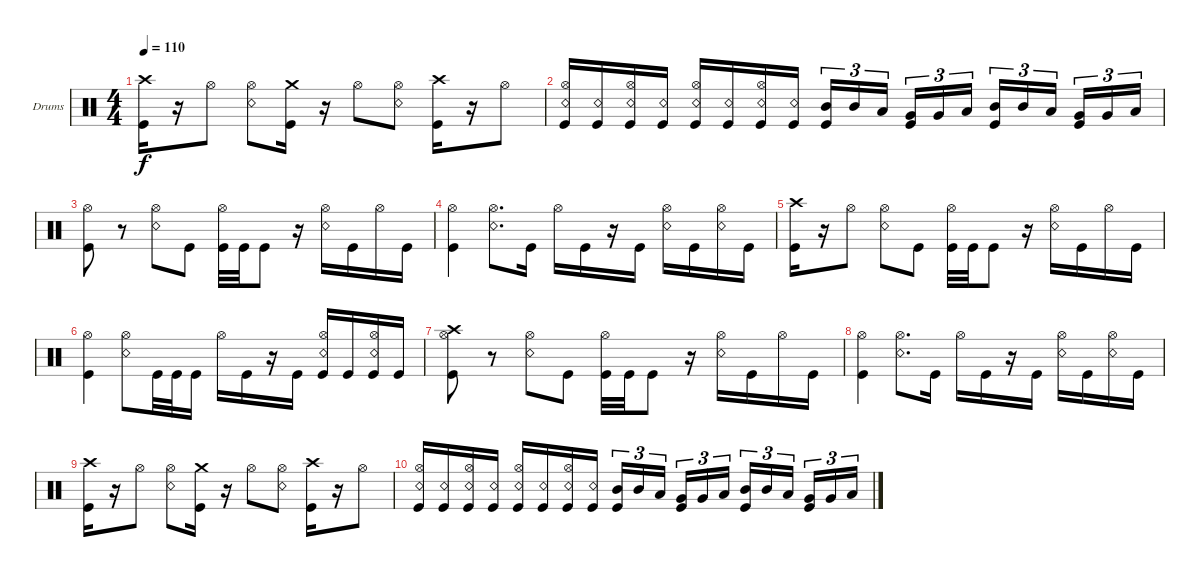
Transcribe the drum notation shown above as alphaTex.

\bracketExtendMode groupsimilarinstruments
\firstSystemTrackNameOrientation horizontal
\otherSystemsTrackNameOrientation horizontal
\track ("Drumkit" "Drums") {instrument percussion}
\staff {score}
\articulation defaults
\ts (4 4)
\tempo 110
\clef neutral
\ks c
("Kick (hit)" "Crash high (hit)").16{dy f} r.16 "Hi-Hat (open)".8 ("Snare (rim shot)" "Hi-Hat (open)").8 ("Kick (hit)" "Crash medium (hit)").16 r.16 "Hi-Hat (open)".8 ("Snare (rim shot)" "Hi-Hat (open)").8 ("Kick (hit)" "Crash high (hit)").16 r.16 "Hi-Hat (open)".8 |
("Snare (rim shot)" "Kick (hit)" "Hi-Hat (open)").16 ("Snare (rim shot)" "Kick (hit)").16 ("Snare (rim shot)" "Kick (hit)" "Hi-Hat (open)").16 ("Snare (rim shot)" "Kick (hit)").16 ("Snare (rim shot)" "Kick (hit)" "Hi-Hat (open)").16 ("Snare (rim shot)" "Kick (hit)").16 ("Snare (rim shot)" "Kick (hit)" "Hi-Hat (open)").16 ("Snare (rim shot)" "Kick (hit)").16 ("Mid Tom (hit)" "Kick (hit)").16{tu (3 2)} "Mid Tom (hit)".16{tu (3 2)} "Low Tom (hit)".16{tu (3 2)} ("Very Low Tom (hit)" "Kick (hit)").16{tu (3 2)} "Very Low Tom (hit)".16{tu (3 2)} "Low Tom (hit)".16{tu (3 2)} ("Mid Tom (hit)" "Kick (hit)").16{tu (3 2)} "Mid Tom (hit)".16{tu (3 2)} "Low Tom (hit)".16{tu (3 2)} ("Kick (hit)" "Very Low Tom (hit)").16{tu (3 2)} "Very Low Tom (hit)".16{tu (3 2)} "Low Tom (hit)".16{tu (3 2)} |
("Kick (hit)" "Hi-Hat (open)").8 r.8 ("Snare (rim shot)" "Hi-Hat (open)").8 "Kick (hit)".8 ("Kick (hit)" "Hi-Hat (open)").32 "Kick (hit)".32 "Kick (hit)".8 r.16 ("Snare (rim shot)" "Hi-Hat (open)").16 "Kick (hit)".16 "Hi-Hat (open)".16 "Kick (hit)".16 |
("Kick (hit)" "Hi-Hat (open)").4 ("Snare (rim shot)" "Hi-Hat (open)").8{d} "Kick (hit)".16 "Hi-Hat (open)".16 "Kick (hit)".16 r.16 "Kick (hit)".16 ("Snare (rim shot)" "Hi-Hat (open)").16 "Kick (hit)".16 ("Snare (rim shot)" "Hi-Hat (open)").16 "Kick (hit)".16 |
("Kick (hit)" "Crash high (hit)").16 r.16 "Hi-Hat (open)".8 ("Snare (rim shot)" "Hi-Hat (open)").8 "Kick (hit)".8 ("Kick (hit)" "Hi-Hat (open)").32 "Kick (hit)".32 "Kick (hit)".8 r.16 ("Snare (rim shot)" "Hi-Hat (open)").16 "Kick (hit)".16 "Hi-Hat (open)".16 "Kick (hit)".16 |
("Kick (hit)" "Hi-Hat (open)").4 ("Snare (rim shot)" "Hi-Hat (open)").8 "Kick (hit)".32 "Kick (hit)".32 "Kick (hit)".16 "Hi-Hat (open)".16 "Kick (hit)".16 r.16 "Kick (hit)".16 ("Snare (rim shot)" "Hi-Hat (open)" "Kick (hit)").16 "Kick (hit)".16 ("Snare (rim shot)" "Hi-Hat (open)" "Kick (hit)").16 "Kick (hit)".16 |
("Kick (hit)" "Hi-Hat (open)" "Crash high (hit)").8 r.8 ("Snare (rim shot)" "Hi-Hat (open)").8 "Kick (hit)".8 ("Kick (hit)" "Hi-Hat (open)").32 "Kick (hit)".32 "Kick (hit)".8 r.16 ("Snare (rim shot)" "Hi-Hat (open)").16 "Kick (hit)".16 "Hi-Hat (open)".16 "Kick (hit)".16 |
("Kick (hit)" "Hi-Hat (open)").4 ("Snare (rim shot)" "Hi-Hat (open)").8{d} "Kick (hit)".16 "Hi-Hat (open)".16 "Kick (hit)".16 r.16 "Kick (hit)".16 ("Snare (rim shot)" "Hi-Hat (open)").16 "Kick (hit)".16 ("Snare (rim shot)" "Hi-Hat (open)").16 "Kick (hit)".16 |
("Kick (hit)" "Crash high (hit)").16 r.16 "Hi-Hat (open)".8 ("Snare (rim shot)" "Hi-Hat (open)").8 ("Kick (hit)" "Crash medium (hit)").16 r.16 "Hi-Hat (open)".8 ("Snare (rim shot)" "Hi-Hat (open)").8 ("Kick (hit)" "Crash high (hit)").16 r.16 "Hi-Hat (open)".8 |
("Snare (rim shot)" "Kick (hit)" "Hi-Hat (open)").16 ("Snare (rim shot)" "Kick (hit)").16 ("Snare (rim shot)" "Kick (hit)" "Hi-Hat (open)").16 ("Snare (rim shot)" "Kick (hit)").16 ("Snare (rim shot)" "Kick (hit)" "Hi-Hat (open)").16 ("Snare (rim shot)" "Kick (hit)").16 ("Snare (rim shot)" "Kick (hit)" "Hi-Hat (open)").16 ("Snare (rim shot)" "Kick (hit)").16 ("Mid Tom (hit)" "Kick (hit)").16{tu (3 2)} "Mid Tom (hit)".16{tu (3 2)} "Low Tom (hit)".16{tu (3 2)} ("Very Low Tom (hit)" "Kick (hit)").16{tu (3 2)} "Very Low Tom (hit)".16{tu (3 2)} "Low Tom (hit)".16{tu (3 2)} ("Mid Tom (hit)" "Kick (hit)").16{tu (3 2)} "Mid Tom (hit)".16{tu (3 2)} "Low Tom (hit)".16{tu (3 2)} ("Kick (hit)" "Very Low Tom (hit)").16{tu (3 2)} "Very Low Tom (hit)".16{tu (3 2)} "Low Tom (hit)".16{tu (3 2)}
